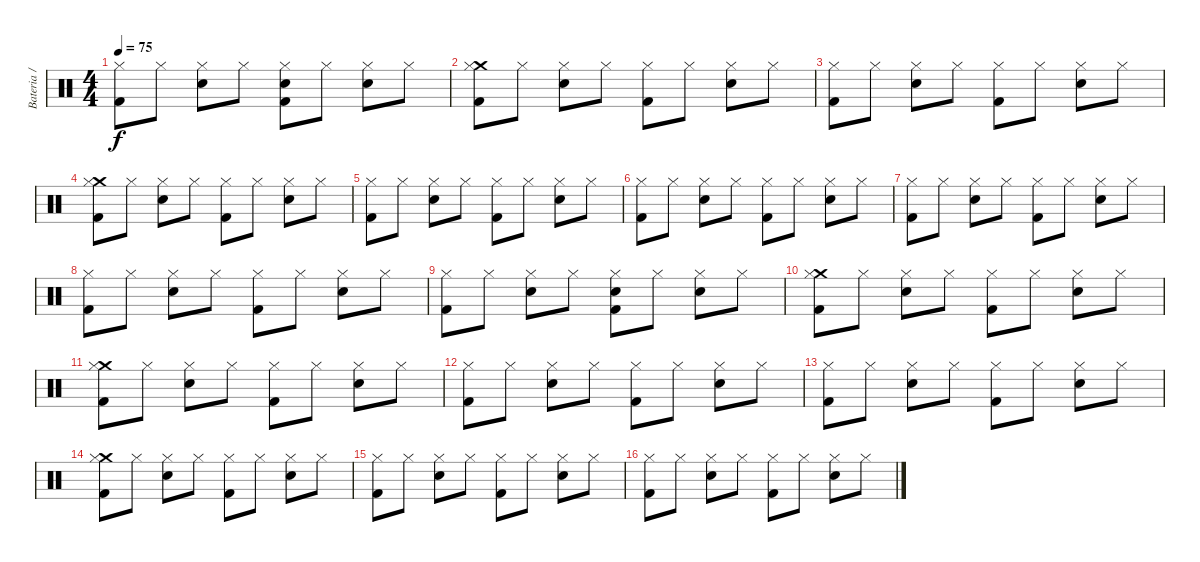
\track ("Bateria / Ringo" "Bateria / ") {instrument percussion}
\staff {score}
\articulation defaults
\ts (4 4)
\tempo 75
\clef neutral
\ks c
("Hi-Hat (closed)" "Kick (hit) 2").8{dy f} "Hi-Hat (closed)".8 ("Snare (hit) 2" "Hi-Hat (closed)").8 "Hi-Hat (closed)".8 ("Snare (hit) 2" "Hi-Hat (closed)" "Kick (hit) 2").8 "Hi-Hat (closed)".8 ("Snare (hit) 2" "Hi-Hat (closed)").8 "Hi-Hat (closed)".8 |
("Crash medium (hit)" "Hi-Hat (closed)" "Kick (hit) 2").8 "Hi-Hat (closed)".8 ("Snare (hit) 2" "Hi-Hat (closed)").8 "Hi-Hat (closed)".8 ("Hi-Hat (closed)" "Kick (hit) 2").8 "Hi-Hat (closed)".8 ("Snare (hit) 2" "Hi-Hat (closed)").8 "Hi-Hat (closed)".8 |
("Hi-Hat (closed)" "Kick (hit) 2").8 "Hi-Hat (closed)".8 ("Snare (hit) 2" "Hi-Hat (closed)").8 "Hi-Hat (closed)".8 ("Hi-Hat (closed)" "Kick (hit) 2").8 "Hi-Hat (closed)".8 ("Snare (hit) 2" "Hi-Hat (closed)").8 "Hi-Hat (closed)".8 |
("Crash medium (hit)" "Hi-Hat (closed)" "Kick (hit) 2").8 "Hi-Hat (closed)".8 ("Snare (hit) 2" "Hi-Hat (closed)").8 "Hi-Hat (closed)".8 ("Hi-Hat (closed)" "Kick (hit) 2").8 "Hi-Hat (closed)".8 ("Snare (hit) 2" "Hi-Hat (closed)").8 "Hi-Hat (closed)".8 |
("Hi-Hat (closed)" "Kick (hit) 2").8 "Hi-Hat (closed)".8 ("Snare (hit) 2" "Hi-Hat (closed)").8 "Hi-Hat (closed)".8 ("Hi-Hat (closed)" "Kick (hit) 2").8 "Hi-Hat (closed)".8 ("Snare (hit) 2" "Hi-Hat (closed)").8 "Hi-Hat (closed)".8 |
("Hi-Hat (closed)" "Kick (hit) 2").8 "Hi-Hat (closed)".8 ("Snare (hit) 2" "Hi-Hat (closed)").8 "Hi-Hat (closed)".8 ("Hi-Hat (closed)" "Kick (hit) 2").8 "Hi-Hat (closed)".8 ("Snare (hit) 2" "Hi-Hat (closed)").8 "Hi-Hat (closed)".8 |
("Hi-Hat (closed)" "Kick (hit) 2").8 "Hi-Hat (closed)".8 ("Snare (hit) 2" "Hi-Hat (closed)").8 "Hi-Hat (closed)".8 ("Hi-Hat (closed)" "Kick (hit) 2").8 "Hi-Hat (closed)".8 ("Snare (hit) 2" "Hi-Hat (closed)").8 "Hi-Hat (closed)".8 |
("Hi-Hat (closed)" "Kick (hit) 2").8 "Hi-Hat (closed)".8 ("Snare (hit) 2" "Hi-Hat (closed)").8 "Hi-Hat (closed)".8 ("Hi-Hat (closed)" "Kick (hit) 2").8 "Hi-Hat (closed)".8 ("Snare (hit) 2" "Hi-Hat (closed)").8 "Hi-Hat (closed)".8 |
("Hi-Hat (closed)" "Kick (hit) 2").8 "Hi-Hat (closed)".8 ("Snare (hit) 2" "Hi-Hat (closed)").8 "Hi-Hat (closed)".8 ("Snare (hit) 2" "Hi-Hat (closed)" "Kick (hit) 2").8 "Hi-Hat (closed)".8 ("Snare (hit) 2" "Hi-Hat (closed)").8 "Hi-Hat (closed)".8 |
("Crash medium (hit)" "Hi-Hat (closed)" "Kick (hit) 2").8 "Hi-Hat (closed)".8 ("Snare (hit) 2" "Hi-Hat (closed)").8 "Hi-Hat (closed)".8 ("Hi-Hat (closed)" "Kick (hit) 2").8 "Hi-Hat (closed)".8 ("Snare (hit) 2" "Hi-Hat (closed)").8 "Hi-Hat (closed)".8 |
("Crash medium (hit)" "Hi-Hat (closed)" "Kick (hit) 2").8 "Hi-Hat (closed)".8 ("Snare (hit) 2" "Hi-Hat (closed)").8 "Hi-Hat (closed)".8 ("Hi-Hat (closed)" "Kick (hit) 2").8 "Hi-Hat (closed)".8 ("Snare (hit) 2" "Hi-Hat (closed)").8 "Hi-Hat (closed)".8 |
("Hi-Hat (closed)" "Kick (hit) 2").8 "Hi-Hat (closed)".8 ("Snare (hit) 2" "Hi-Hat (closed)").8 "Hi-Hat (closed)".8 ("Hi-Hat (closed)" "Kick (hit) 2").8 "Hi-Hat (closed)".8 ("Snare (hit) 2" "Hi-Hat (closed)").8 "Hi-Hat (closed)".8 |
("Hi-Hat (closed)" "Kick (hit) 2").8 "Hi-Hat (closed)".8 ("Snare (hit) 2" "Hi-Hat (closed)").8 "Hi-Hat (closed)".8 ("Hi-Hat (closed)" "Kick (hit) 2").8 "Hi-Hat (closed)".8 ("Snare (hit) 2" "Hi-Hat (closed)").8 "Hi-Hat (closed)".8 |
("Crash medium (hit)" "Hi-Hat (closed)" "Kick (hit) 2").8 "Hi-Hat (closed)".8 ("Snare (hit) 2" "Hi-Hat (closed)").8 "Hi-Hat (closed)".8 ("Hi-Hat (closed)" "Kick (hit) 2").8 "Hi-Hat (closed)".8 ("Snare (hit) 2" "Hi-Hat (closed)").8 "Hi-Hat (closed)".8 |
("Hi-Hat (closed)" "Kick (hit) 2").8 "Hi-Hat (closed)".8 ("Snare (hit) 2" "Hi-Hat (closed)").8 "Hi-Hat (closed)".8 ("Hi-Hat (closed)" "Kick (hit) 2").8 "Hi-Hat (closed)".8 ("Snare (hit) 2" "Hi-Hat (closed)").8 "Hi-Hat (closed)".8 |
("Hi-Hat (closed)" "Kick (hit) 2").8 "Hi-Hat (closed)".8 ("Snare (hit) 2" "Hi-Hat (closed)").8 "Hi-Hat (closed)".8 ("Hi-Hat (closed)" "Kick (hit) 2").8 "Hi-Hat (closed)".8 ("Snare (hit) 2" "Hi-Hat (closed)").8 "Hi-Hat (closed)".8
